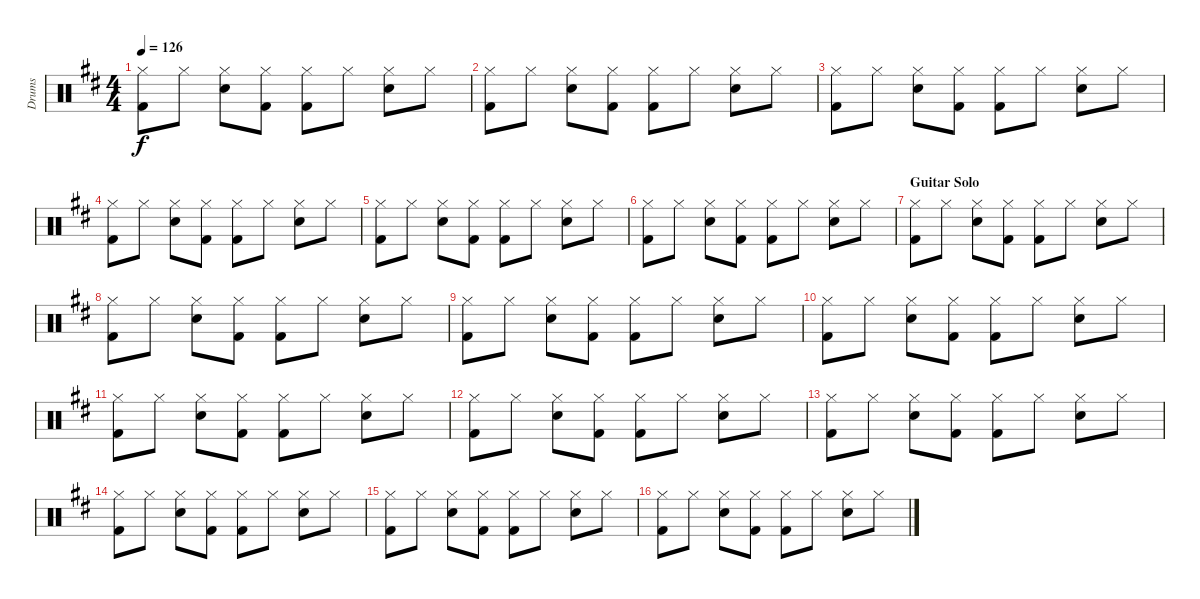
\track ("Drums" "Drums") {instrument percussion}
\staff {score}
\articulation defaults
\ts (4 4)
\tempo 126
\clef neutral
\ks d
("Kick (hit) 2" "Hi-Hat (closed)").8{dy f} "Hi-Hat (closed)".8 ("Snare (hit) 2" "Hi-Hat (closed)").8 ("Kick (hit) 2" "Hi-Hat (closed)").8 ("Kick (hit) 2" "Hi-Hat (closed)").8 "Hi-Hat (closed)".8 ("Snare (hit) 2" "Hi-Hat (closed)").8 "Hi-Hat (closed)".8 |
("Kick (hit) 2" "Hi-Hat (closed)").8 "Hi-Hat (closed)".8 ("Snare (hit) 2" "Hi-Hat (closed)").8 ("Kick (hit) 2" "Hi-Hat (closed)").8 ("Kick (hit) 2" "Hi-Hat (closed)").8 "Hi-Hat (closed)".8 ("Snare (hit) 2" "Hi-Hat (closed)").8 "Hi-Hat (closed)".8 |
("Kick (hit) 2" "Hi-Hat (closed)").8 "Hi-Hat (closed)".8 ("Snare (hit) 2" "Hi-Hat (closed)").8 ("Kick (hit) 2" "Hi-Hat (closed)").8 ("Kick (hit) 2" "Hi-Hat (closed)").8 "Hi-Hat (closed)".8 ("Snare (hit) 2" "Hi-Hat (closed)").8 "Hi-Hat (closed)".8 |
("Kick (hit) 2" "Hi-Hat (closed)").8 "Hi-Hat (closed)".8 ("Snare (hit) 2" "Hi-Hat (closed)").8 ("Kick (hit) 2" "Hi-Hat (closed)").8 ("Kick (hit) 2" "Hi-Hat (closed)").8 "Hi-Hat (closed)".8 ("Snare (hit) 2" "Hi-Hat (closed)").8 "Hi-Hat (closed)".8 |
("Kick (hit) 2" "Hi-Hat (closed)").8 "Hi-Hat (closed)".8 ("Snare (hit) 2" "Hi-Hat (closed)").8 ("Kick (hit) 2" "Hi-Hat (closed)").8 ("Kick (hit) 2" "Hi-Hat (closed)").8 "Hi-Hat (closed)".8 ("Snare (hit) 2" "Hi-Hat (closed)").8 "Hi-Hat (closed)".8 |
("Kick (hit) 2" "Hi-Hat (closed)").8 "Hi-Hat (closed)".8 ("Snare (hit) 2" "Hi-Hat (closed)").8 ("Kick (hit) 2" "Hi-Hat (closed)").8 ("Kick (hit) 2" "Hi-Hat (closed)").8 "Hi-Hat (closed)".8 ("Snare (hit) 2" "Hi-Hat (closed)").8 "Hi-Hat (closed)".8 |
\section ("" "Guitar Solo")
("Kick (hit) 2" "Hi-Hat (closed)").8 "Hi-Hat (closed)".8 ("Snare (hit) 2" "Hi-Hat (closed)").8 ("Kick (hit) 2" "Hi-Hat (closed)").8 ("Kick (hit) 2" "Hi-Hat (closed)").8 "Hi-Hat (closed)".8 ("Snare (hit) 2" "Hi-Hat (closed)").8 "Hi-Hat (closed)".8 |
("Kick (hit) 2" "Hi-Hat (closed)").8 "Hi-Hat (closed)".8 ("Snare (hit) 2" "Hi-Hat (closed)").8 ("Kick (hit) 2" "Hi-Hat (closed)").8 ("Kick (hit) 2" "Hi-Hat (closed)").8 "Hi-Hat (closed)".8 ("Snare (hit) 2" "Hi-Hat (closed)").8 "Hi-Hat (closed)".8 |
("Kick (hit) 2" "Hi-Hat (closed)").8 "Hi-Hat (closed)".8 ("Snare (hit) 2" "Hi-Hat (closed)").8 ("Kick (hit) 2" "Hi-Hat (closed)").8 ("Kick (hit) 2" "Hi-Hat (closed)").8 "Hi-Hat (closed)".8 ("Snare (hit) 2" "Hi-Hat (closed)").8 "Hi-Hat (closed)".8 |
("Kick (hit) 2" "Hi-Hat (closed)").8 "Hi-Hat (closed)".8 ("Snare (hit) 2" "Hi-Hat (closed)").8 ("Kick (hit) 2" "Hi-Hat (closed)").8 ("Kick (hit) 2" "Hi-Hat (closed)").8 "Hi-Hat (closed)".8 ("Snare (hit) 2" "Hi-Hat (closed)").8 "Hi-Hat (closed)".8 |
("Kick (hit) 2" "Hi-Hat (closed)").8 "Hi-Hat (closed)".8 ("Snare (hit) 2" "Hi-Hat (closed)").8 ("Kick (hit) 2" "Hi-Hat (closed)").8 ("Kick (hit) 2" "Hi-Hat (closed)").8 "Hi-Hat (closed)".8 ("Snare (hit) 2" "Hi-Hat (closed)").8 "Hi-Hat (closed)".8 |
("Kick (hit) 2" "Hi-Hat (closed)").8 "Hi-Hat (closed)".8 ("Snare (hit) 2" "Hi-Hat (closed)").8 ("Kick (hit) 2" "Hi-Hat (closed)").8 ("Kick (hit) 2" "Hi-Hat (closed)").8 "Hi-Hat (closed)".8 ("Snare (hit) 2" "Hi-Hat (closed)").8 "Hi-Hat (closed)".8 |
("Kick (hit) 2" "Hi-Hat (closed)").8 "Hi-Hat (closed)".8 ("Snare (hit) 2" "Hi-Hat (closed)").8 ("Kick (hit) 2" "Hi-Hat (closed)").8 ("Kick (hit) 2" "Hi-Hat (closed)").8 "Hi-Hat (closed)".8 ("Snare (hit) 2" "Hi-Hat (closed)").8 "Hi-Hat (closed)".8 |
("Kick (hit) 2" "Hi-Hat (closed)").8 "Hi-Hat (closed)".8 ("Snare (hit) 2" "Hi-Hat (closed)").8 ("Kick (hit) 2" "Hi-Hat (closed)").8 ("Kick (hit) 2" "Hi-Hat (closed)").8 "Hi-Hat (closed)".8 ("Snare (hit) 2" "Hi-Hat (closed)").8 "Hi-Hat (closed)".8 |
("Kick (hit) 2" "Hi-Hat (closed)").8 "Hi-Hat (closed)".8 ("Snare (hit) 2" "Hi-Hat (closed)").8 ("Kick (hit) 2" "Hi-Hat (closed)").8 ("Kick (hit) 2" "Hi-Hat (closed)").8 "Hi-Hat (closed)".8 ("Snare (hit) 2" "Hi-Hat (closed)").8 "Hi-Hat (closed)".8 |
("Kick (hit) 2" "Hi-Hat (closed)").8 "Hi-Hat (closed)".8 ("Snare (hit) 2" "Hi-Hat (closed)").8 ("Kick (hit) 2" "Hi-Hat (closed)").8 ("Kick (hit) 2" "Hi-Hat (closed)").8 "Hi-Hat (closed)".8 ("Snare (hit) 2" "Hi-Hat (closed)").8 "Hi-Hat (closed)".8
